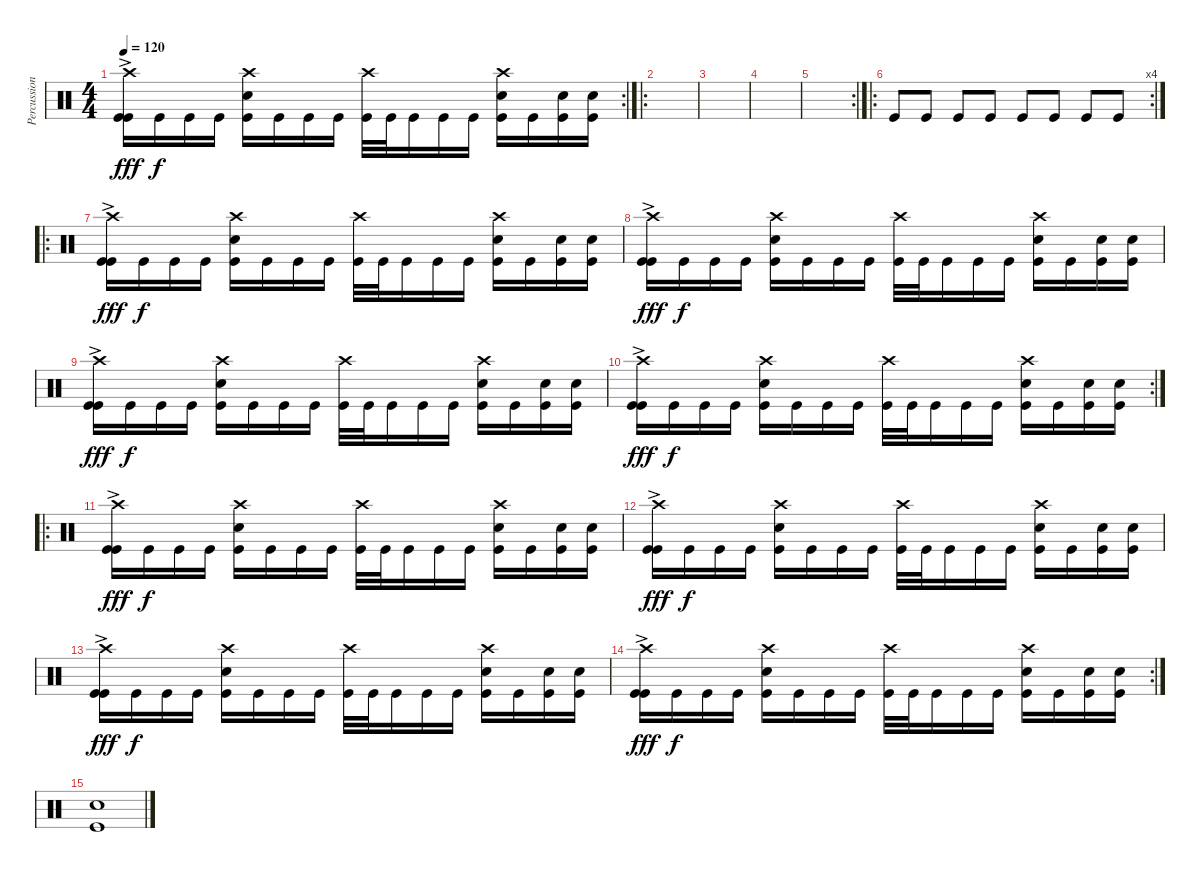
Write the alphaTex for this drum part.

\track ("Percussion" "Percussion") {instrument percussion}
\staff {score}
\articulation defaults
\rc 2
\ts (4 4)
\tempo 120
\clef neutral
\ks c
("Crash high (hit)" "Kick (hit)"{ac} "Kick (hit)").16{dy fff} "Kick (hit)".16{dy f} "Kick (hit)".16 "Kick (hit)".16 ("Crash high (hit)" "Snare (hit) 2" "Kick (hit)").16 "Kick (hit)".16 "Kick (hit)".16 "Kick (hit)".16 ("Crash high (hit)" "Kick (hit)").32 "Kick (hit)".32 "Kick (hit)".16 "Kick (hit)".16 "Kick (hit)".16 ("Crash high (hit)" "Snare (hit) 2" "Kick (hit)").16 "Kick (hit)".16 ("Snare (hit) 2" "Kick (hit)").16 ("Snare (hit) 2" "Kick (hit)").16 |
\ro
|
|
|
\rc 2
|
\ro
\rc 4 "Kick (hit)".8 "Kick (hit)".8 "Kick (hit)".8 "Kick (hit)".8 "Kick (hit)".8 "Kick (hit)".8 "Kick (hit)".8 "Kick (hit)".8
|
\ro
("Crash high (hit)" "Kick (hit)"{ac} "Kick (hit)").16{dy fff} "Kick (hit)".16{dy f} "Kick (hit)".16 "Kick (hit)".16 ("Crash high (hit)" "Snare (hit) 2" "Kick (hit)").16 "Kick (hit)".16 "Kick (hit)".16 "Kick (hit)".16 ("Crash high (hit)" "Kick (hit)").32 "Kick (hit)".32 "Kick (hit)".16 "Kick (hit)".16 "Kick (hit)".16 ("Crash high (hit)" "Snare (hit) 2" "Kick (hit)").16 "Kick (hit)".16 ("Snare (hit) 2" "Kick (hit)").16 ("Snare (hit) 2" "Kick (hit)").16 |
("Crash high (hit)" "Kick (hit)"{ac} "Kick (hit)").16{dy fff} "Kick (hit)".16{dy f} "Kick (hit)".16 "Kick (hit)".16 ("Crash high (hit)" "Snare (hit) 2" "Kick (hit)").16 "Kick (hit)".16 "Kick (hit)".16 "Kick (hit)".16 ("Crash high (hit)" "Kick (hit)").32 "Kick (hit)".32 "Kick (hit)".16 "Kick (hit)".16 "Kick (hit)".16 ("Crash high (hit)" "Snare (hit) 2" "Kick (hit)").16 "Kick (hit)".16 ("Snare (hit) 2" "Kick (hit)").16 ("Snare (hit) 2" "Kick (hit)").16 |
("Crash high (hit)" "Kick (hit)"{ac} "Kick (hit)").16{dy fff} "Kick (hit)".16{dy f} "Kick (hit)".16 "Kick (hit)".16 ("Crash high (hit)" "Snare (hit) 2" "Kick (hit)").16 "Kick (hit)".16 "Kick (hit)".16 "Kick (hit)".16 ("Crash high (hit)" "Kick (hit)").32 "Kick (hit)".32 "Kick (hit)".16 "Kick (hit)".16 "Kick (hit)".16 ("Crash high (hit)" "Snare (hit) 2" "Kick (hit)").16 "Kick (hit)".16 ("Snare (hit) 2" "Kick (hit)").16 ("Snare (hit) 2" "Kick (hit)").16 |
\rc 2
("Crash high (hit)" "Kick (hit)"{ac} "Kick (hit)").16{dy fff} "Kick (hit)".16{dy f} "Kick (hit)".16 "Kick (hit)".16 ("Crash high (hit)" "Snare (hit) 2" "Kick (hit)").16 "Kick (hit)".16 "Kick (hit)".16 "Kick (hit)".16 ("Crash high (hit)" "Kick (hit)").32 "Kick (hit)".32 "Kick (hit)".16 "Kick (hit)".16 "Kick (hit)".16 ("Crash high (hit)" "Snare (hit) 2" "Kick (hit)").16 "Kick (hit)".16 ("Snare (hit) 2" "Kick (hit)").16 ("Snare (hit) 2" "Kick (hit)").16 |
\ro
("Crash high (hit)" "Kick (hit)"{ac} "Kick (hit)").16{dy fff} "Kick (hit)".16{dy f} "Kick (hit)".16 "Kick (hit)".16 ("Crash high (hit)" "Snare (hit) 2" "Kick (hit)").16 "Kick (hit)".16 "Kick (hit)".16 "Kick (hit)".16 ("Crash high (hit)" "Kick (hit)").32 "Kick (hit)".32 "Kick (hit)".16 "Kick (hit)".16 "Kick (hit)".16 ("Crash high (hit)" "Snare (hit) 2" "Kick (hit)").16 "Kick (hit)".16 ("Snare (hit) 2" "Kick (hit)").16 ("Snare (hit) 2" "Kick (hit)").16 |
("Crash high (hit)" "Kick (hit)"{ac} "Kick (hit)").16{dy fff} "Kick (hit)".16{dy f} "Kick (hit)".16 "Kick (hit)".16 ("Crash high (hit)" "Snare (hit) 2" "Kick (hit)").16 "Kick (hit)".16 "Kick (hit)".16 "Kick (hit)".16 ("Crash high (hit)" "Kick (hit)").32 "Kick (hit)".32 "Kick (hit)".16 "Kick (hit)".16 "Kick (hit)".16 ("Crash high (hit)" "Snare (hit) 2" "Kick (hit)").16 "Kick (hit)".16 ("Snare (hit) 2" "Kick (hit)").16 ("Snare (hit) 2" "Kick (hit)").16 |
("Crash high (hit)" "Kick (hit)"{ac} "Kick (hit)").16{dy fff} "Kick (hit)".16{dy f} "Kick (hit)".16 "Kick (hit)".16 ("Crash high (hit)" "Snare (hit) 2" "Kick (hit)").16 "Kick (hit)".16 "Kick (hit)".16 "Kick (hit)".16 ("Crash high (hit)" "Kick (hit)").32 "Kick (hit)".32 "Kick (hit)".16 "Kick (hit)".16 "Kick (hit)".16 ("Crash high (hit)" "Snare (hit) 2" "Kick (hit)").16 "Kick (hit)".16 ("Snare (hit) 2" "Kick (hit)").16 ("Snare (hit) 2" "Kick (hit)").16 |
\rc 2
("Crash high (hit)" "Kick (hit)"{ac} "Kick (hit)").16{dy fff} "Kick (hit)".16{dy f} "Kick (hit)".16 "Kick (hit)".16 ("Crash high (hit)" "Snare (hit) 2" "Kick (hit)").16 "Kick (hit)".16 "Kick (hit)".16 "Kick (hit)".16 ("Crash high (hit)" "Kick (hit)").32 "Kick (hit)".32 "Kick (hit)".16 "Kick (hit)".16 "Kick (hit)".16 ("Crash high (hit)" "Snare (hit) 2" "Kick (hit)").16 "Kick (hit)".16 ("Snare (hit) 2" "Kick (hit)").16 ("Snare (hit) 2" "Kick (hit)").16 |
("Snare (hit) 2" "Kick (hit)").1
